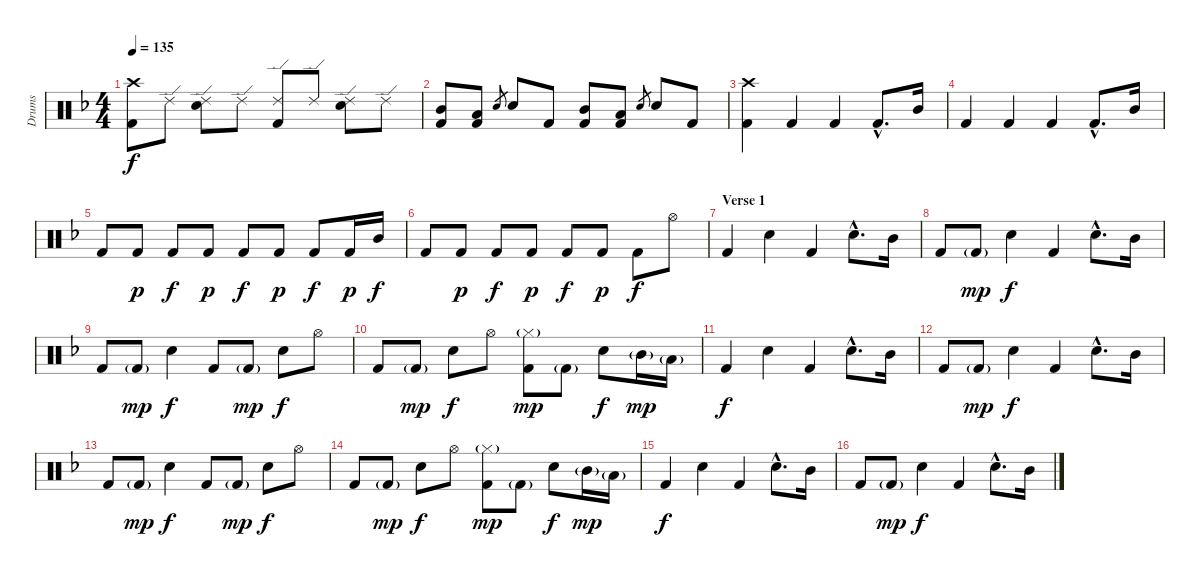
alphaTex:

\track ("Drums" "Drums") {instrument percussion}
\staff {score}
\articulation defaults
\ts (4 4)
\tempo 135
\clef neutral
\ks f
("Crash high (hit)" "Kick (hit) 2").8{dy f} "Ride (edge) 2".8 ("Ride (edge) 2" "Electric Snare (hit)").8 "Ride (edge) 2".8 ("Ride (edge) 2" "Kick (hit) 2").8 "Ride (edge) 2".8 ("Ride (edge) 2" "Electric Snare (hit)").8 "Ride (edge) 2".8 |
("Mid Tom (hit)" "Kick (hit) 2").8 ("Low Tom (hit)" "Kick (hit) 2").8 "Snare (hit) 2".8{gr} "Electric Snare (hit)".8 "Kick (hit) 2".8 ("Mid Tom (hit)" "Kick (hit) 2").8 ("Low Tom (hit)" "Kick (hit) 2").8 "Snare (hit) 2".8{gr} "Electric Snare (hit)".8 "Kick (hit) 2".8 |
("Crash high (hit)" "Kick (hit) 2").4 "Kick (hit) 2".4 "Kick (hit) 2".4 "Kick (hit) 2"{hac}.8{d} "Mid Tom (hit)".16 |
"Kick (hit) 2".4 "Kick (hit) 2".4 "Kick (hit) 2".4 "Kick (hit) 2"{hac}.8{d} "Mid Tom (hit)".16 |
"Kick (hit) 2".8 "Kick (hit) 2".8{dy p} "Kick (hit) 2".8{dy f} "Kick (hit) 2".8{dy p} "Kick (hit) 2".8{dy f} "Kick (hit) 2".8{dy p} "Kick (hit) 2".8{dy f} "Kick (hit) 2".16{dy p} "Mid Tom (hit)".16{dy f} |
"Kick (hit) 2".8 "Kick (hit) 2".8{dy p} "Kick (hit) 2".8{dy f} "Kick (hit) 2".8{dy p} "Kick (hit) 2".8{dy f} "Kick (hit) 2".8{dy p} "Kick (hit) 2".8{dy f} "Hi-Hat (open)".8 |
\section ("" "Verse 1")
"Kick (hit) 2".4 "Electric Snare (hit)".4 "Kick (hit) 2".4 "Electric Snare (hit)"{hac}.8{d} "Mid Tom (hit)".16 |
"Kick (hit) 2".8 "Kick (hit) 2"{g}.8{dy mp} "Electric Snare (hit)".4{dy f} "Kick (hit) 2".4 "Electric Snare (hit)"{hac}.8{d} "Mid Tom (hit)".16 |
"Kick (hit) 2".8 "Kick (hit) 2"{g}.8{dy mp} "Electric Snare (hit)".4{dy f} "Kick (hit) 2".8 "Kick (hit) 2"{g}.8{dy mp} "Electric Snare (hit)".8{dy f} "Hi-Hat (open)".8 |
"Kick (hit) 2".8 "Kick (hit) 2"{g}.8{dy mp} "Electric Snare (hit)".8{dy f} "Hi-Hat (open)".8 ("Hi-Hat (closed)"{g} "Kick (hit) 2").8{dy mp} "Kick (hit) 2"{g}.8 "Electric Snare (hit)".8{dy f} "Mid Tom (hit)"{g}.16{dy mp} "Low Tom (hit)"{g}.16 |
"Kick (hit) 2".4{dy f} "Electric Snare (hit)".4 "Kick (hit) 2".4 "Electric Snare (hit)"{hac}.8{d} "Mid Tom (hit)".16 |
"Kick (hit) 2".8 "Kick (hit) 2"{g}.8{dy mp} "Electric Snare (hit)".4{dy f} "Kick (hit) 2".4 "Electric Snare (hit)"{hac}.8{d} "Mid Tom (hit)".16 |
"Kick (hit) 2".8 "Kick (hit) 2"{g}.8{dy mp} "Electric Snare (hit)".4{dy f} "Kick (hit) 2".8 "Kick (hit) 2"{g}.8{dy mp} "Electric Snare (hit)".8{dy f} "Hi-Hat (open)".8 |
"Kick (hit) 2".8 "Kick (hit) 2"{g}.8{dy mp} "Electric Snare (hit)".8{dy f} "Hi-Hat (open)".8 ("Hi-Hat (closed)"{g} "Kick (hit) 2").8{dy mp} "Kick (hit) 2"{g}.8 "Electric Snare (hit)".8{dy f} "Mid Tom (hit)"{g}.16{dy mp} "Low Tom (hit)"{g}.16 |
"Kick (hit) 2".4{dy f} "Electric Snare (hit)".4 "Kick (hit) 2".4 "Electric Snare (hit)"{hac}.8{d} "Mid Tom (hit)".16 |
"Kick (hit) 2".8 "Kick (hit) 2"{g}.8{dy mp} "Electric Snare (hit)".4{dy f} "Kick (hit) 2".4 "Electric Snare (hit)"{hac}.8{d} "Mid Tom (hit)".16
